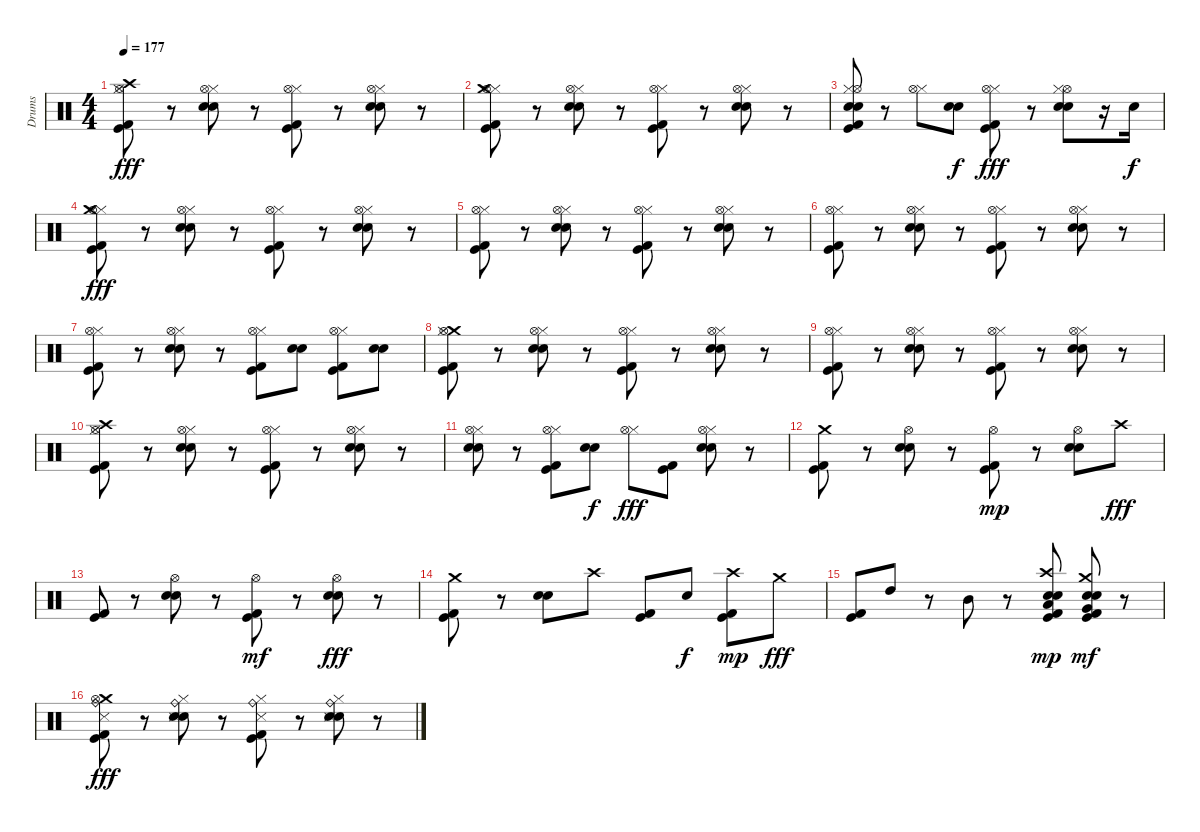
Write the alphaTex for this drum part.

\track ("Drums" "Drums") {instrument percussion}
\staff {score}
\articulation defaults
\ts (4 4)
\tempo 177
\clef neutral
\ks c
("Kick (hit) 2" "Kick (hit)" "Hi-Hat (closed)" "Hi-Hat (open)" "Crash high (hit)").8{dy fff} r.8 ("Electric Snare (hit)" "Snare (hit) 2" "Hi-Hat (closed)" "Hi-Hat (open)").8 r.8 ("Kick (hit) 2" "Kick (hit)" "Hi-Hat (closed)" "Hi-Hat (open)").8 r.8 ("Electric Snare (hit)" "Snare (hit) 2" "Hi-Hat (closed)" "Hi-Hat (open)").8 r.8 |
("Kick (hit) 2" "Kick (hit)" "Hi-Hat (closed)" "Hi-Hat (open)" "Crash medium (hit)").8 r.8 ("Electric Snare (hit)" "Snare (hit) 2" "Hi-Hat (closed)" "Hi-Hat (open)").8 r.8 ("Kick (hit) 2" "Kick (hit)" "Hi-Hat (closed)" "Hi-Hat (open)").8 r.8 ("Electric Snare (hit)" "Snare (hit) 2" "Hi-Hat (closed)" "Hi-Hat (open)").8 r.8 |
("Kick (hit) 2" "Kick (hit)" "Hi-Hat (closed)" "Hi-Hat (open)" "Snare (hit) 2" "Electric Snare (hit)").8 r.8 ("Hi-Hat (closed)" "Hi-Hat (open)").8 ("Electric Snare (hit)" "Snare (hit) 2").8{dy f} ("Kick (hit) 2" "Kick (hit)" "Hi-Hat (closed)" "Hi-Hat (open)").8{dy fff} r.8 ("Electric Snare (hit)" "Snare (hit) 2" "Hi-Hat (open)" "Hi-Hat (closed)").8 r.16 "Electric Snare (hit)".16{dy f} |
("Kick (hit) 2" "Kick (hit)" "Hi-Hat (closed)" "Hi-Hat (open)" "Crash medium (hit)").8{dy fff} r.8 ("Electric Snare (hit)" "Snare (hit) 2" "Hi-Hat (closed)" "Hi-Hat (open)").8 r.8 ("Kick (hit) 2" "Kick (hit)" "Hi-Hat (closed)" "Hi-Hat (open)").8 r.8 ("Electric Snare (hit)" "Snare (hit) 2" "Hi-Hat (closed)" "Hi-Hat (open)").8 r.8 |
("Kick (hit) 2" "Kick (hit)" "Hi-Hat (closed)" "Hi-Hat (open)").8 r.8 ("Electric Snare (hit)" "Snare (hit) 2" "Hi-Hat (closed)" "Hi-Hat (open)").8 r.8 ("Kick (hit) 2" "Kick (hit)" "Hi-Hat (closed)" "Hi-Hat (open)").8 r.8 ("Electric Snare (hit)" "Snare (hit) 2" "Hi-Hat (closed)" "Hi-Hat (open)").8 r.8 |
("Kick (hit) 2" "Kick (hit)" "Hi-Hat (closed)" "Hi-Hat (open)").8 r.8 ("Electric Snare (hit)" "Snare (hit) 2" "Hi-Hat (closed)" "Hi-Hat (open)").8 r.8 ("Kick (hit) 2" "Kick (hit)" "Hi-Hat (closed)" "Hi-Hat (open)").8 r.8 ("Electric Snare (hit)" "Snare (hit) 2" "Hi-Hat (closed)" "Hi-Hat (open)").8 r.8 |
("Kick (hit) 2" "Kick (hit)" "Hi-Hat (closed)" "Hi-Hat (open)").8 r.8 ("Electric Snare (hit)" "Snare (hit) 2" "Hi-Hat (closed)" "Hi-Hat (open)").8 r.8 ("Kick (hit) 2" "Kick (hit)" "Hi-Hat (closed)" "Hi-Hat (open)").8 ("Electric Snare (hit)" "Snare (hit) 2").8 ("Hi-Hat (closed)" "Hi-Hat (open)" "Kick (hit) 2" "Kick (hit)").8 ("Electric Snare (hit)" "Snare (hit) 2").8 |
("Crash medium (hit)" "Kick (hit) 2" "Kick (hit)" "Hi-Hat (closed)" "Hi-Hat (open)").8 r.8 ("Electric Snare (hit)" "Snare (hit) 2" "Hi-Hat (closed)" "Hi-Hat (open)").8 r.8 ("Kick (hit) 2" "Kick (hit)" "Hi-Hat (closed)" "Hi-Hat (open)").8 r.8 ("Electric Snare (hit)" "Snare (hit) 2" "Hi-Hat (closed)" "Hi-Hat (open)").8 r.8 |
("Kick (hit) 2" "Kick (hit)" "Hi-Hat (closed)" "Hi-Hat (open)").8 r.8 ("Electric Snare (hit)" "Snare (hit) 2" "Hi-Hat (closed)" "Hi-Hat (open)").8 r.8 ("Kick (hit) 2" "Kick (hit)" "Hi-Hat (closed)" "Hi-Hat (open)").8 r.8 ("Electric Snare (hit)" "Snare (hit) 2" "Hi-Hat (closed)" "Hi-Hat (open)").8 r.8 |
("Crash high (hit)" "Kick (hit) 2" "Kick (hit)" "Hi-Hat (closed)" "Hi-Hat (open)").8 r.8 ("Electric Snare (hit)" "Snare (hit) 2" "Hi-Hat (closed)" "Hi-Hat (open)").8 r.8 ("Kick (hit) 2" "Kick (hit)" "Hi-Hat (closed)" "Hi-Hat (open)").8 r.8 ("Electric Snare (hit)" "Snare (hit) 2" "Hi-Hat (closed)" "Hi-Hat (open)").8 r.8 |
("Hi-Hat (closed)" "Hi-Hat (open)" "Electric Snare (hit)" "Snare (hit) 2").8 r.8 ("Hi-Hat (closed)" "Hi-Hat (open)" "Kick (hit) 2" "Kick (hit)").8 ("Electric Snare (hit)" "Snare (hit) 2").8{dy f} ("Hi-Hat (closed)" "Hi-Hat (open)").8{dy fff} ("Kick (hit) 2" "Kick (hit)").8 ("Electric Snare (hit)" "Snare (hit) 2" "Hi-Hat (closed)" "Hi-Hat (open)").8 r.8 |
("Kick (hit) 2" "Kick (hit)" "Crash medium (hit)").8 r.8 ("Hi-Hat (open)" "Electric Snare (hit)" "Snare (hit) 2").8 r.8 ("Kick (hit) 2" "Kick (hit)" "Hi-Hat (open)").8{dy mp} r.8 ("Electric Snare (hit)" "Snare (hit) 2" "Hi-Hat (open)").8 "Crash high (hit)".8{dy fff} |
("Kick (hit) 2" "Kick (hit)").8 r.8 ("Electric Snare (hit)" "Snare (hit) 2" "Hi-Hat (open)").8 r.8 ("Kick (hit) 2" "Kick (hit)" "Hi-Hat (open)").8{dy mf} r.8 ("Electric Snare (hit)" "Snare (hit) 2" "Hi-Hat (open)").8{dy fff} r.8 |
("Kick (hit) 2" "Kick (hit)" "Crash medium (hit)").8 r.8 ("Electric Snare (hit)" "Snare (hit) 2").8 "Crash high (hit)".8 ("Kick (hit) 2" "Kick (hit)").8 "Electric Snare (hit)".8{dy f} ("Kick (hit) 2" "Kick (hit)" "Crash high (hit)").8{dy mp} "Crash medium (hit)".8{dy fff} |
("Kick (hit) 2" "Kick (hit)").8 "High Tom (hit)".8 r.8 "Mid Tom (hit)".8 r.8 ("Snare (hit) 2" "Electric Snare (hit)" "Kick (hit)" "Kick (hit) 2" "Low Tom (hit)" "Crash high (hit)").8{dy mp} ("Electric Snare (hit)" "Snare (hit) 2" "Kick (hit)" "Kick (hit) 2" "Very Low Tom (hit)" "Crash medium (hit)").8{dy mf} r.8 |
("Crash medium (hit)" "Kick (hit) 2" "Kick (hit)" "Hi-Hat (open)" "Snare (side stick) 3" "Ride (bell)").8{dy fff} r.8 ("Hi-Hat (closed)" "Electric Snare (hit)" "Snare (hit) 2" "Snare (side stick) 3" "Ride (bell)").8 r.8 ("Hi-Hat (closed)" "Kick (hit) 2" "Kick (hit)" "Snare (side stick) 3" "Ride (bell)").8 r.8 ("Hi-Hat (closed)" "Electric Snare (hit)" "Snare (hit) 2" "Snare (side stick) 3" "Ride (bell)").8 r.8
